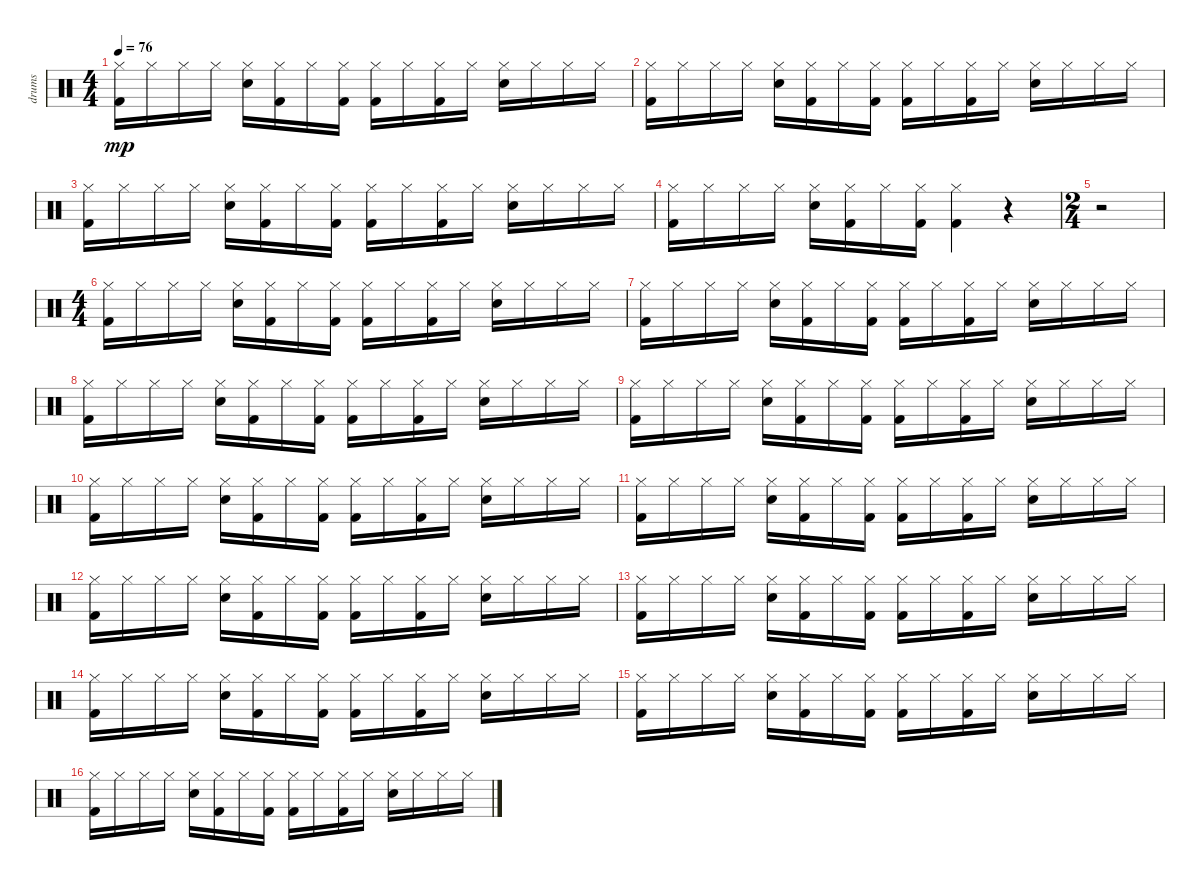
\track ("drums" "drums") {instrument percussion}
\staff {score}
\articulation defaults
\ts (4 4)
\tempo 76
\clef neutral
\ks c
("Hi-Hat (closed)" "Kick (hit) 2").16{dy mp} "Hi-Hat (closed)".16 "Hi-Hat (closed)".16 "Hi-Hat (closed)".16 ("Hi-Hat (closed)" "Snare (hit) 2").16 ("Hi-Hat (closed)" "Kick (hit) 2").16 "Hi-Hat (closed)".16 ("Hi-Hat (closed)" "Kick (hit) 2").16 ("Hi-Hat (closed)" "Kick (hit) 2").16 "Hi-Hat (closed)".16 ("Hi-Hat (closed)" "Kick (hit) 2").16 "Hi-Hat (closed)".16 ("Snare (hit) 2" "Hi-Hat (closed)").16 "Hi-Hat (closed)".16 "Hi-Hat (closed)".16 "Hi-Hat (closed)".16 |
("Hi-Hat (closed)" "Kick (hit) 2").16 "Hi-Hat (closed)".16 "Hi-Hat (closed)".16 "Hi-Hat (closed)".16 ("Hi-Hat (closed)" "Snare (hit) 2").16 ("Hi-Hat (closed)" "Kick (hit) 2").16 "Hi-Hat (closed)".16 ("Hi-Hat (closed)" "Kick (hit) 2").16 ("Hi-Hat (closed)" "Kick (hit) 2").16 "Hi-Hat (closed)".16 ("Hi-Hat (closed)" "Kick (hit) 2").16 "Hi-Hat (closed)".16 ("Snare (hit) 2" "Hi-Hat (closed)").16 "Hi-Hat (closed)".16 "Hi-Hat (closed)".16 "Hi-Hat (closed)".16 |
("Hi-Hat (closed)" "Kick (hit) 2").16 "Hi-Hat (closed)".16 "Hi-Hat (closed)".16 "Hi-Hat (closed)".16 ("Hi-Hat (closed)" "Snare (hit) 2").16 ("Hi-Hat (closed)" "Kick (hit) 2").16 "Hi-Hat (closed)".16 ("Hi-Hat (closed)" "Kick (hit) 2").16 ("Hi-Hat (closed)" "Kick (hit) 2").16 "Hi-Hat (closed)".16 ("Hi-Hat (closed)" "Kick (hit) 2").16 "Hi-Hat (closed)".16 ("Snare (hit) 2" "Hi-Hat (closed)").16 "Hi-Hat (closed)".16 "Hi-Hat (closed)".16 "Hi-Hat (closed)".16 |
("Hi-Hat (closed)" "Kick (hit) 2").16 "Hi-Hat (closed)".16 "Hi-Hat (closed)".16 "Hi-Hat (closed)".16 ("Hi-Hat (closed)" "Snare (hit) 2").16 ("Hi-Hat (closed)" "Kick (hit) 2").16 "Hi-Hat (closed)".16 ("Hi-Hat (closed)" "Kick (hit) 2").16 ("Hi-Hat (closed)" "Kick (hit) 2").4 r.4 |
\ts (2 4)
r.2 |
\ts (4 4)
("Hi-Hat (closed)" "Kick (hit) 2").16 "Hi-Hat (closed)".16 "Hi-Hat (closed)".16 "Hi-Hat (closed)".16 ("Hi-Hat (closed)" "Snare (hit) 2").16 ("Hi-Hat (closed)" "Kick (hit) 2").16 "Hi-Hat (closed)".16 ("Hi-Hat (closed)" "Kick (hit) 2").16 ("Hi-Hat (closed)" "Kick (hit) 2").16 "Hi-Hat (closed)".16 ("Hi-Hat (closed)" "Kick (hit) 2").16 "Hi-Hat (closed)".16 ("Snare (hit) 2" "Hi-Hat (closed)").16 "Hi-Hat (closed)".16 "Hi-Hat (closed)".16 "Hi-Hat (closed)".16 |
("Hi-Hat (closed)" "Kick (hit) 2").16 "Hi-Hat (closed)".16 "Hi-Hat (closed)".16 "Hi-Hat (closed)".16 ("Hi-Hat (closed)" "Snare (hit) 2").16 ("Hi-Hat (closed)" "Kick (hit) 2").16 "Hi-Hat (closed)".16 ("Hi-Hat (closed)" "Kick (hit) 2").16 ("Hi-Hat (closed)" "Kick (hit) 2").16 "Hi-Hat (closed)".16 ("Hi-Hat (closed)" "Kick (hit) 2").16 "Hi-Hat (closed)".16 ("Snare (hit) 2" "Hi-Hat (closed)").16 "Hi-Hat (closed)".16 "Hi-Hat (closed)".16 "Hi-Hat (closed)".16 |
("Hi-Hat (closed)" "Kick (hit) 2").16 "Hi-Hat (closed)".16 "Hi-Hat (closed)".16 "Hi-Hat (closed)".16 ("Hi-Hat (closed)" "Snare (hit) 2").16 ("Hi-Hat (closed)" "Kick (hit) 2").16 "Hi-Hat (closed)".16 ("Hi-Hat (closed)" "Kick (hit) 2").16 ("Hi-Hat (closed)" "Kick (hit) 2").16 "Hi-Hat (closed)".16 ("Hi-Hat (closed)" "Kick (hit) 2").16 "Hi-Hat (closed)".16 ("Snare (hit) 2" "Hi-Hat (closed)").16 "Hi-Hat (closed)".16 "Hi-Hat (closed)".16 "Hi-Hat (closed)".16 |
("Hi-Hat (closed)" "Kick (hit) 2").16 "Hi-Hat (closed)".16 "Hi-Hat (closed)".16 "Hi-Hat (closed)".16 ("Hi-Hat (closed)" "Snare (hit) 2").16 ("Hi-Hat (closed)" "Kick (hit) 2").16 "Hi-Hat (closed)".16 ("Hi-Hat (closed)" "Kick (hit) 2").16 ("Hi-Hat (closed)" "Kick (hit) 2").16 "Hi-Hat (closed)".16 ("Hi-Hat (closed)" "Kick (hit) 2").16 "Hi-Hat (closed)".16 ("Snare (hit) 2" "Hi-Hat (closed)").16 "Hi-Hat (closed)".16 "Hi-Hat (closed)".16 "Hi-Hat (closed)".16 |
("Hi-Hat (closed)" "Kick (hit) 2").16 "Hi-Hat (closed)".16 "Hi-Hat (closed)".16 "Hi-Hat (closed)".16 ("Hi-Hat (closed)" "Snare (hit) 2").16 ("Hi-Hat (closed)" "Kick (hit) 2").16 "Hi-Hat (closed)".16 ("Hi-Hat (closed)" "Kick (hit) 2").16 ("Hi-Hat (closed)" "Kick (hit) 2").16 "Hi-Hat (closed)".16 ("Hi-Hat (closed)" "Kick (hit) 2").16 "Hi-Hat (closed)".16 ("Snare (hit) 2" "Hi-Hat (closed)").16 "Hi-Hat (closed)".16 "Hi-Hat (closed)".16 "Hi-Hat (closed)".16 |
("Hi-Hat (closed)" "Kick (hit) 2").16 "Hi-Hat (closed)".16 "Hi-Hat (closed)".16 "Hi-Hat (closed)".16 ("Hi-Hat (closed)" "Snare (hit) 2").16 ("Hi-Hat (closed)" "Kick (hit) 2").16 "Hi-Hat (closed)".16 ("Hi-Hat (closed)" "Kick (hit) 2").16 ("Hi-Hat (closed)" "Kick (hit) 2").16 "Hi-Hat (closed)".16 ("Hi-Hat (closed)" "Kick (hit) 2").16 "Hi-Hat (closed)".16 ("Snare (hit) 2" "Hi-Hat (closed)").16 "Hi-Hat (closed)".16 "Hi-Hat (closed)".16 "Hi-Hat (closed)".16 |
("Hi-Hat (closed)" "Kick (hit) 2").16 "Hi-Hat (closed)".16 "Hi-Hat (closed)".16 "Hi-Hat (closed)".16 ("Hi-Hat (closed)" "Snare (hit) 2").16 ("Hi-Hat (closed)" "Kick (hit) 2").16 "Hi-Hat (closed)".16 ("Hi-Hat (closed)" "Kick (hit) 2").16 ("Hi-Hat (closed)" "Kick (hit) 2").16 "Hi-Hat (closed)".16 ("Hi-Hat (closed)" "Kick (hit) 2").16 "Hi-Hat (closed)".16 ("Snare (hit) 2" "Hi-Hat (closed)").16 "Hi-Hat (closed)".16 "Hi-Hat (closed)".16 "Hi-Hat (closed)".16 |
("Hi-Hat (closed)" "Kick (hit) 2").16 "Hi-Hat (closed)".16 "Hi-Hat (closed)".16 "Hi-Hat (closed)".16 ("Hi-Hat (closed)" "Snare (hit) 2").16 ("Hi-Hat (closed)" "Kick (hit) 2").16 "Hi-Hat (closed)".16 ("Hi-Hat (closed)" "Kick (hit) 2").16 ("Hi-Hat (closed)" "Kick (hit) 2").16 "Hi-Hat (closed)".16 ("Hi-Hat (closed)" "Kick (hit) 2").16 "Hi-Hat (closed)".16 ("Snare (hit) 2" "Hi-Hat (closed)").16 "Hi-Hat (closed)".16 "Hi-Hat (closed)".16 "Hi-Hat (closed)".16 |
("Hi-Hat (closed)" "Kick (hit) 2").16 "Hi-Hat (closed)".16 "Hi-Hat (closed)".16 "Hi-Hat (closed)".16 ("Hi-Hat (closed)" "Snare (hit) 2").16 ("Hi-Hat (closed)" "Kick (hit) 2").16 "Hi-Hat (closed)".16 ("Hi-Hat (closed)" "Kick (hit) 2").16 ("Hi-Hat (closed)" "Kick (hit) 2").16 "Hi-Hat (closed)".16 ("Hi-Hat (closed)" "Kick (hit) 2").16 "Hi-Hat (closed)".16 ("Snare (hit) 2" "Hi-Hat (closed)").16 "Hi-Hat (closed)".16 "Hi-Hat (closed)".16 "Hi-Hat (closed)".16 |
("Hi-Hat (closed)" "Kick (hit) 2").16 "Hi-Hat (closed)".16 "Hi-Hat (closed)".16 "Hi-Hat (closed)".16 ("Hi-Hat (closed)" "Snare (hit) 2").16 ("Hi-Hat (closed)" "Kick (hit) 2").16 "Hi-Hat (closed)".16 ("Hi-Hat (closed)" "Kick (hit) 2").16 ("Hi-Hat (closed)" "Kick (hit) 2").16 "Hi-Hat (closed)".16 ("Hi-Hat (closed)" "Kick (hit) 2").16 "Hi-Hat (closed)".16 ("Snare (hit) 2" "Hi-Hat (closed)").16 "Hi-Hat (closed)".16 "Hi-Hat (closed)".16 "Hi-Hat (closed)".16 |
("Hi-Hat (closed)" "Kick (hit) 2").16 "Hi-Hat (closed)".16 "Hi-Hat (closed)".16 "Hi-Hat (closed)".16 ("Hi-Hat (closed)" "Snare (hit) 2").16 ("Hi-Hat (closed)" "Kick (hit) 2").16 "Hi-Hat (closed)".16 ("Hi-Hat (closed)" "Kick (hit) 2").16 ("Hi-Hat (closed)" "Kick (hit) 2").16 "Hi-Hat (closed)".16 ("Hi-Hat (closed)" "Kick (hit) 2").16 "Hi-Hat (closed)".16 ("Snare (hit) 2" "Hi-Hat (closed)").16 "Hi-Hat (closed)".16 "Hi-Hat (closed)".16 "Hi-Hat (closed)".16
